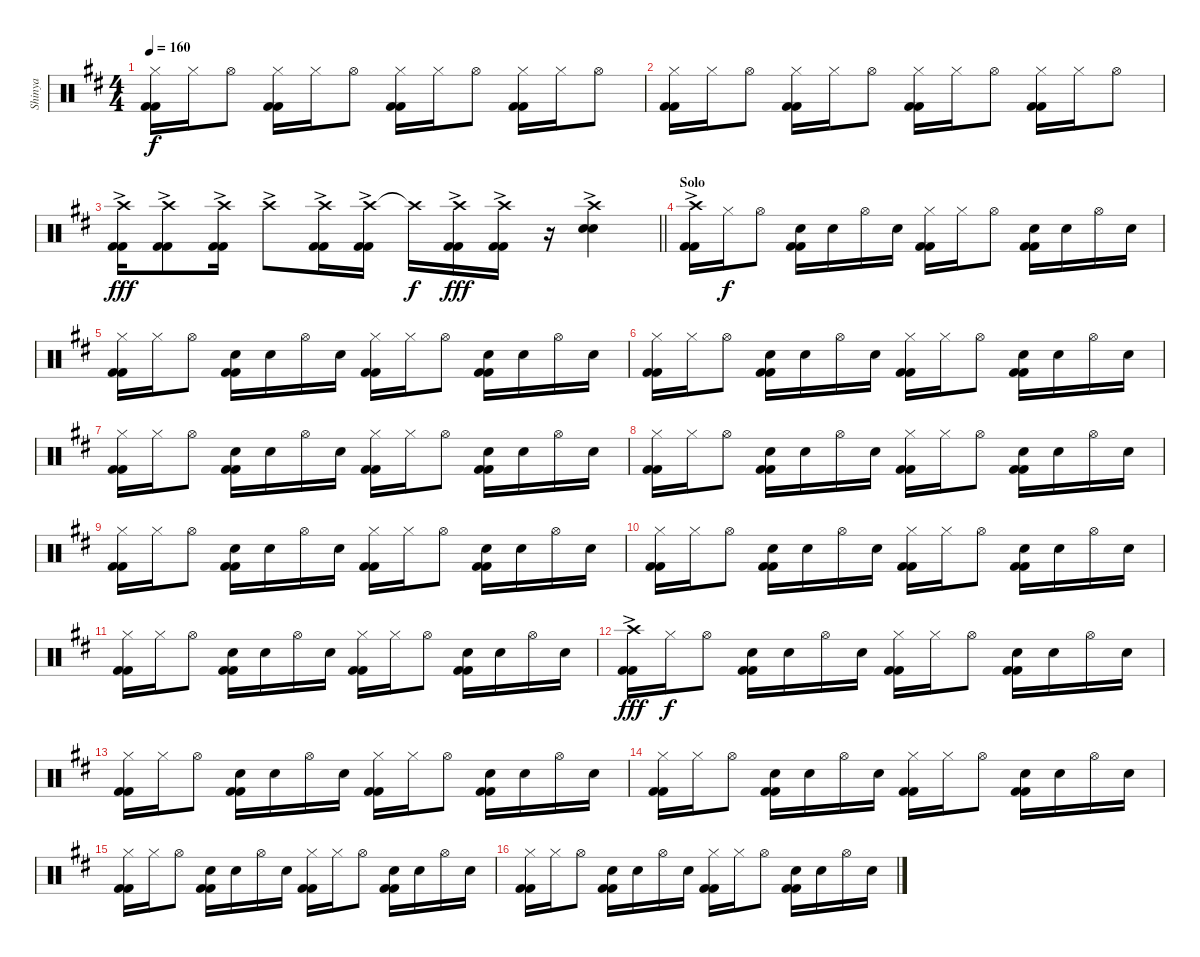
\track ("Shinya " "Shinya ") {instrument percussion}
\staff {score}
\articulation defaults
\ts (4 4)
\tempo 160
\clef neutral
\ks d
("Hi-Hat (closed)" "Kick (hit) 2" "Kick (hit) 2").16{dy f} "Hi-Hat (closed)".16 "Hi-Hat (open)".8 ("Hi-Hat (closed)" "Kick (hit) 2" "Kick (hit) 2").16 "Hi-Hat (closed)".16 "Hi-Hat (open)".8 ("Hi-Hat (closed)" "Kick (hit) 2" "Kick (hit) 2").16 "Hi-Hat (closed)".16 "Hi-Hat (open)".8 ("Hi-Hat (closed)" "Kick (hit) 2" "Kick (hit) 2").16 "Hi-Hat (closed)".16 "Hi-Hat (open)".8 |
("Hi-Hat (closed)" "Kick (hit) 2" "Kick (hit) 2").16 "Hi-Hat (closed)".16 "Hi-Hat (open)".8 ("Hi-Hat (closed)" "Kick (hit) 2" "Kick (hit) 2").16 "Hi-Hat (closed)".16 "Hi-Hat (open)".8 ("Hi-Hat (closed)" "Kick (hit) 2" "Kick (hit) 2").16 "Hi-Hat (closed)".16 "Hi-Hat (open)".8 ("Hi-Hat (closed)" "Kick (hit) 2" "Kick (hit) 2").16 "Hi-Hat (closed)".16 "Hi-Hat (open)".8 |
\barLineRight lightlight
("Crash high (hit)"{ac} "Kick (hit) 2" "Kick (hit) 2").16{dy fff} ("Crash high (hit)"{ac} "Kick (hit) 2" "Kick (hit) 2").8 ("Crash high (hit)"{ac} "Kick (hit) 2" "Kick (hit) 2").16 "Crash high (hit)"{ac}.8 ("Crash high (hit)"{ac} "Kick (hit) 2" "Kick (hit) 2").16 ("Crash high (hit)"{ac} "Kick (hit) 2" "Kick (hit) 2").16 "Crash high (hit)"{t}.16{dy f} ("Crash high (hit)"{ac} "Kick (hit) 2" "Kick (hit) 2").16{dy fff} ("Crash high (hit)"{ac} "Kick (hit) 2" "Kick (hit) 2").16 r.16 ("Crash high (hit)"{ac} "Snare (hit) 2" "Snare (hit) 2").4 |
\section ("" "Solo")
("Crash high (hit)"{ac} "Kick (hit) 2" "Kick (hit) 2").16 "Hi-Hat (closed)".16{dy f} "Hi-Hat (open)".8 ("Snare (hit) 2" "Kick (hit) 2" "Kick (hit) 2").16 "Snare (hit) 2".16 "Hi-Hat (open)".16 "Snare (hit) 2".16 ("Hi-Hat (closed)" "Kick (hit) 2" "Kick (hit) 2").16 "Hi-Hat (closed)".16 "Hi-Hat (open)".8 ("Snare (hit) 2" "Kick (hit) 2" "Kick (hit) 2").16 "Snare (hit) 2".16 "Hi-Hat (open)".16 "Snare (hit) 2".16 |
("Hi-Hat (closed)" "Kick (hit) 2" "Kick (hit) 2").16 "Hi-Hat (closed)".16 "Hi-Hat (open)".8 ("Snare (hit) 2" "Kick (hit) 2" "Kick (hit) 2").16 "Snare (hit) 2".16 "Hi-Hat (open)".16 "Snare (hit) 2".16 ("Hi-Hat (closed)" "Kick (hit) 2" "Kick (hit) 2").16 "Hi-Hat (closed)".16 "Hi-Hat (open)".8 ("Snare (hit) 2" "Kick (hit) 2" "Kick (hit) 2").16 "Snare (hit) 2".16 "Hi-Hat (open)".16 "Snare (hit) 2".16 |
("Hi-Hat (closed)" "Kick (hit) 2" "Kick (hit) 2").16 "Hi-Hat (closed)".16 "Hi-Hat (open)".8 ("Snare (hit) 2" "Kick (hit) 2" "Kick (hit) 2").16 "Snare (hit) 2".16 "Hi-Hat (open)".16 "Snare (hit) 2".16 ("Hi-Hat (closed)" "Kick (hit) 2" "Kick (hit) 2").16 "Hi-Hat (closed)".16 "Hi-Hat (open)".8 ("Snare (hit) 2" "Kick (hit) 2" "Kick (hit) 2").16 "Snare (hit) 2".16 "Hi-Hat (open)".16 "Snare (hit) 2".16 |
("Hi-Hat (closed)" "Kick (hit) 2" "Kick (hit) 2").16 "Hi-Hat (closed)".16 "Hi-Hat (open)".8 ("Snare (hit) 2" "Kick (hit) 2" "Kick (hit) 2").16 "Snare (hit) 2".16 "Hi-Hat (open)".16 "Snare (hit) 2".16 ("Hi-Hat (closed)" "Kick (hit) 2" "Kick (hit) 2").16 "Hi-Hat (closed)".16 "Hi-Hat (open)".8 ("Snare (hit) 2" "Kick (hit) 2" "Kick (hit) 2").16 "Snare (hit) 2".16 "Hi-Hat (open)".16 "Snare (hit) 2".16 |
("Hi-Hat (closed)" "Kick (hit) 2" "Kick (hit) 2").16 "Hi-Hat (closed)".16 "Hi-Hat (open)".8 ("Snare (hit) 2" "Kick (hit) 2" "Kick (hit) 2").16 "Snare (hit) 2".16 "Hi-Hat (open)".16 "Snare (hit) 2".16 ("Hi-Hat (closed)" "Kick (hit) 2" "Kick (hit) 2").16 "Hi-Hat (closed)".16 "Hi-Hat (open)".8 ("Snare (hit) 2" "Kick (hit) 2" "Kick (hit) 2").16 "Snare (hit) 2".16 "Hi-Hat (open)".16 "Snare (hit) 2".16 |
("Hi-Hat (closed)" "Kick (hit) 2" "Kick (hit) 2").16 "Hi-Hat (closed)".16 "Hi-Hat (open)".8 ("Snare (hit) 2" "Kick (hit) 2" "Kick (hit) 2").16 "Snare (hit) 2".16 "Hi-Hat (open)".16 "Snare (hit) 2".16 ("Hi-Hat (closed)" "Kick (hit) 2" "Kick (hit) 2").16 "Hi-Hat (closed)".16 "Hi-Hat (open)".8 ("Snare (hit) 2" "Kick (hit) 2" "Kick (hit) 2").16 "Snare (hit) 2".16 "Hi-Hat (open)".16 "Snare (hit) 2".16 |
("Hi-Hat (closed)" "Kick (hit) 2" "Kick (hit) 2").16 "Hi-Hat (closed)".16 "Hi-Hat (open)".8 ("Snare (hit) 2" "Kick (hit) 2" "Kick (hit) 2").16 "Snare (hit) 2".16 "Hi-Hat (open)".16 "Snare (hit) 2".16 ("Hi-Hat (closed)" "Kick (hit) 2" "Kick (hit) 2").16 "Hi-Hat (closed)".16 "Hi-Hat (open)".8 ("Snare (hit) 2" "Kick (hit) 2" "Kick (hit) 2").16 "Snare (hit) 2".16 "Hi-Hat (open)".16 "Snare (hit) 2".16 |
("Hi-Hat (closed)" "Kick (hit) 2" "Kick (hit) 2").16 "Hi-Hat (closed)".16 "Hi-Hat (open)".8 ("Snare (hit) 2" "Kick (hit) 2" "Kick (hit) 2").16 "Snare (hit) 2".16 "Hi-Hat (open)".16 "Snare (hit) 2".16 ("Hi-Hat (closed)" "Kick (hit) 2" "Kick (hit) 2").16 "Hi-Hat (closed)".16 "Hi-Hat (open)".8 ("Snare (hit) 2" "Kick (hit) 2" "Kick (hit) 2").16 "Snare (hit) 2".16 "Hi-Hat (open)".16 "Snare (hit) 2".16 |
("Crash high (hit)"{ac} "Kick (hit) 2" "Kick (hit) 2").16{dy fff} "Hi-Hat (closed)".16{dy f} "Hi-Hat (open)".8 ("Snare (hit) 2" "Kick (hit) 2" "Kick (hit) 2").16 "Snare (hit) 2".16 "Hi-Hat (open)".16 "Snare (hit) 2".16 ("Hi-Hat (closed)" "Kick (hit) 2" "Kick (hit) 2").16 "Hi-Hat (closed)".16 "Hi-Hat (open)".8 ("Snare (hit) 2" "Kick (hit) 2" "Kick (hit) 2").16 "Snare (hit) 2".16 "Hi-Hat (open)".16 "Snare (hit) 2".16 |
("Hi-Hat (closed)" "Kick (hit) 2" "Kick (hit) 2").16 "Hi-Hat (closed)".16 "Hi-Hat (open)".8 ("Snare (hit) 2" "Kick (hit) 2" "Kick (hit) 2").16 "Snare (hit) 2".16 "Hi-Hat (open)".16 "Snare (hit) 2".16 ("Hi-Hat (closed)" "Kick (hit) 2" "Kick (hit) 2").16 "Hi-Hat (closed)".16 "Hi-Hat (open)".8 ("Snare (hit) 2" "Kick (hit) 2" "Kick (hit) 2").16 "Snare (hit) 2".16 "Hi-Hat (open)".16 "Snare (hit) 2".16 |
("Hi-Hat (closed)" "Kick (hit) 2" "Kick (hit) 2").16 "Hi-Hat (closed)".16 "Hi-Hat (open)".8 ("Snare (hit) 2" "Kick (hit) 2" "Kick (hit) 2").16 "Snare (hit) 2".16 "Hi-Hat (open)".16 "Snare (hit) 2".16 ("Hi-Hat (closed)" "Kick (hit) 2" "Kick (hit) 2").16 "Hi-Hat (closed)".16 "Hi-Hat (open)".8 ("Snare (hit) 2" "Kick (hit) 2" "Kick (hit) 2").16 "Snare (hit) 2".16 "Hi-Hat (open)".16 "Snare (hit) 2".16 |
("Hi-Hat (closed)" "Kick (hit) 2" "Kick (hit) 2").16 "Hi-Hat (closed)".16 "Hi-Hat (open)".8 ("Snare (hit) 2" "Kick (hit) 2" "Kick (hit) 2").16 "Snare (hit) 2".16 "Hi-Hat (open)".16 "Snare (hit) 2".16 ("Hi-Hat (closed)" "Kick (hit) 2" "Kick (hit) 2").16 "Hi-Hat (closed)".16 "Hi-Hat (open)".8 ("Snare (hit) 2" "Kick (hit) 2" "Kick (hit) 2").16 "Snare (hit) 2".16 "Hi-Hat (open)".16 "Snare (hit) 2".16 |
("Hi-Hat (closed)" "Kick (hit) 2" "Kick (hit) 2").16 "Hi-Hat (closed)".16 "Hi-Hat (open)".8 ("Snare (hit) 2" "Kick (hit) 2" "Kick (hit) 2").16 "Snare (hit) 2".16 "Hi-Hat (open)".16 "Snare (hit) 2".16 ("Hi-Hat (closed)" "Kick (hit) 2" "Kick (hit) 2").16 "Hi-Hat (closed)".16 "Hi-Hat (open)".8 ("Snare (hit) 2" "Kick (hit) 2" "Kick (hit) 2").16 "Snare (hit) 2".16 "Hi-Hat (open)".16 "Snare (hit) 2".16
